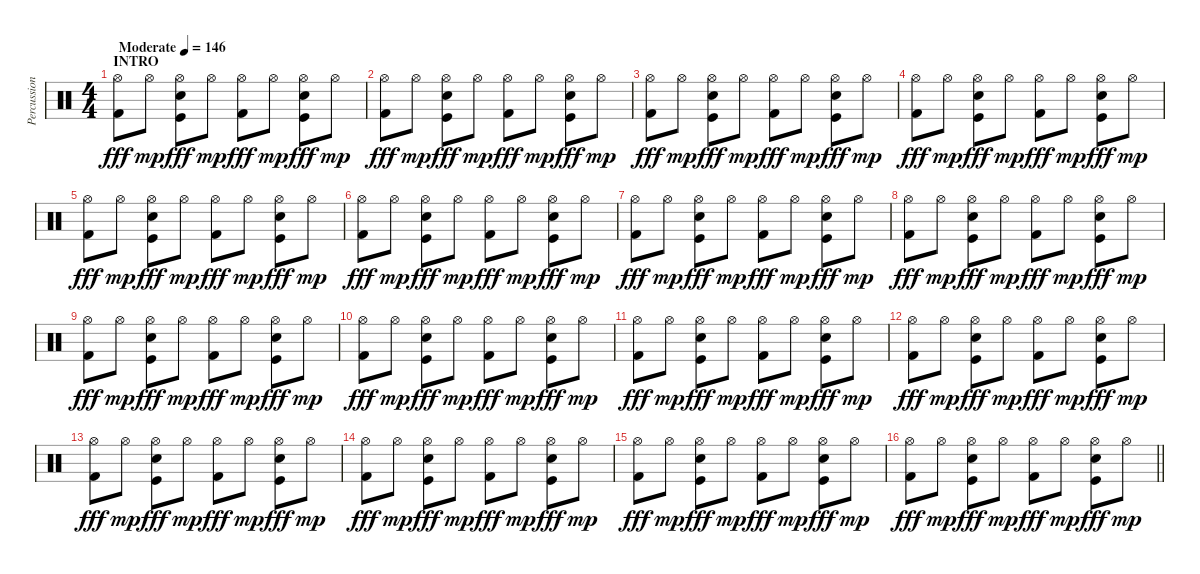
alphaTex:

\track ("Percussion" "Percussion") {instrument percussion}
\staff {score}
\articulation defaults
\ts (4 4)
\section ("" "INTRO")
\tempo (146 "Moderate")
\clef neutral
\ks c
("Hi-Hat (open)" "Kick (hit) 2").8{dy fff} "Hi-Hat (open)".8{dy mp} ("Hi-Hat (open)" "Kick (hit)" "Snare (hit) 2").8{dy fff} "Hi-Hat (open)".8{dy mp} ("Hi-Hat (open)" "Kick (hit) 2").8{dy fff} "Hi-Hat (open)".8{dy mp} ("Hi-Hat (open)" "Kick (hit)" "Snare (hit) 2").8{dy fff} "Hi-Hat (open)".8{dy mp} |
("Hi-Hat (open)" "Kick (hit) 2").8{dy fff} "Hi-Hat (open)".8{dy mp} ("Hi-Hat (open)" "Kick (hit)" "Snare (hit) 2").8{dy fff} "Hi-Hat (open)".8{dy mp} ("Hi-Hat (open)" "Kick (hit) 2").8{dy fff} "Hi-Hat (open)".8{dy mp} ("Hi-Hat (open)" "Kick (hit)" "Snare (hit) 2").8{dy fff} "Hi-Hat (open)".8{dy mp} |
("Hi-Hat (open)" "Kick (hit) 2").8{dy fff} "Hi-Hat (open)".8{dy mp} ("Hi-Hat (open)" "Kick (hit)" "Snare (hit) 2").8{dy fff} "Hi-Hat (open)".8{dy mp} ("Hi-Hat (open)" "Kick (hit) 2").8{dy fff} "Hi-Hat (open)".8{dy mp} ("Hi-Hat (open)" "Kick (hit)" "Snare (hit) 2").8{dy fff} "Hi-Hat (open)".8{dy mp} |
("Hi-Hat (open)" "Kick (hit) 2").8{dy fff} "Hi-Hat (open)".8{dy mp} ("Hi-Hat (open)" "Kick (hit)" "Snare (hit) 2").8{dy fff} "Hi-Hat (open)".8{dy mp} ("Hi-Hat (open)" "Kick (hit) 2").8{dy fff} "Hi-Hat (open)".8{dy mp} ("Hi-Hat (open)" "Kick (hit)" "Snare (hit) 2").8{dy fff} "Hi-Hat (open)".8{dy mp} |
("Hi-Hat (open)" "Kick (hit) 2").8{dy fff} "Hi-Hat (open)".8{dy mp} ("Hi-Hat (open)" "Kick (hit)" "Snare (hit) 2").8{dy fff} "Hi-Hat (open)".8{dy mp} ("Hi-Hat (open)" "Kick (hit) 2").8{dy fff} "Hi-Hat (open)".8{dy mp} ("Hi-Hat (open)" "Kick (hit)" "Snare (hit) 2").8{dy fff} "Hi-Hat (open)".8{dy mp} |
("Hi-Hat (open)" "Kick (hit) 2").8{dy fff} "Hi-Hat (open)".8{dy mp} ("Hi-Hat (open)" "Kick (hit)" "Snare (hit) 2").8{dy fff} "Hi-Hat (open)".8{dy mp} ("Hi-Hat (open)" "Kick (hit) 2").8{dy fff} "Hi-Hat (open)".8{dy mp} ("Hi-Hat (open)" "Kick (hit)" "Snare (hit) 2").8{dy fff} "Hi-Hat (open)".8{dy mp} |
("Hi-Hat (open)" "Kick (hit) 2").8{dy fff} "Hi-Hat (open)".8{dy mp} ("Hi-Hat (open)" "Kick (hit)" "Snare (hit) 2").8{dy fff} "Hi-Hat (open)".8{dy mp} ("Hi-Hat (open)" "Kick (hit) 2").8{dy fff} "Hi-Hat (open)".8{dy mp} ("Hi-Hat (open)" "Kick (hit)" "Snare (hit) 2").8{dy fff} "Hi-Hat (open)".8{dy mp} |
("Hi-Hat (open)" "Kick (hit) 2").8{dy fff} "Hi-Hat (open)".8{dy mp} ("Hi-Hat (open)" "Kick (hit)" "Snare (hit) 2").8{dy fff} "Hi-Hat (open)".8{dy mp} ("Hi-Hat (open)" "Kick (hit) 2").8{dy fff} "Hi-Hat (open)".8{dy mp} ("Hi-Hat (open)" "Kick (hit)" "Snare (hit) 2").8{dy fff} "Hi-Hat (open)".8{dy mp} |
("Hi-Hat (open)" "Kick (hit) 2").8{dy fff} "Hi-Hat (open)".8{dy mp} ("Hi-Hat (open)" "Kick (hit)" "Snare (hit) 2").8{dy fff} "Hi-Hat (open)".8{dy mp} ("Hi-Hat (open)" "Kick (hit) 2").8{dy fff} "Hi-Hat (open)".8{dy mp} ("Hi-Hat (open)" "Kick (hit)" "Snare (hit) 2").8{dy fff} "Hi-Hat (open)".8{dy mp} |
("Hi-Hat (open)" "Kick (hit) 2").8{dy fff} "Hi-Hat (open)".8{dy mp} ("Hi-Hat (open)" "Kick (hit)" "Snare (hit) 2").8{dy fff} "Hi-Hat (open)".8{dy mp} ("Hi-Hat (open)" "Kick (hit) 2").8{dy fff} "Hi-Hat (open)".8{dy mp} ("Hi-Hat (open)" "Kick (hit)" "Snare (hit) 2").8{dy fff} "Hi-Hat (open)".8{dy mp} |
("Hi-Hat (open)" "Kick (hit) 2").8{dy fff} "Hi-Hat (open)".8{dy mp} ("Hi-Hat (open)" "Kick (hit)" "Snare (hit) 2").8{dy fff} "Hi-Hat (open)".8{dy mp} ("Hi-Hat (open)" "Kick (hit) 2").8{dy fff} "Hi-Hat (open)".8{dy mp} ("Hi-Hat (open)" "Kick (hit)" "Snare (hit) 2").8{dy fff} "Hi-Hat (open)".8{dy mp} |
("Hi-Hat (open)" "Kick (hit) 2").8{dy fff} "Hi-Hat (open)".8{dy mp} ("Hi-Hat (open)" "Kick (hit)" "Snare (hit) 2").8{dy fff} "Hi-Hat (open)".8{dy mp} ("Hi-Hat (open)" "Kick (hit) 2").8{dy fff} "Hi-Hat (open)".8{dy mp} ("Hi-Hat (open)" "Kick (hit)" "Snare (hit) 2").8{dy fff} "Hi-Hat (open)".8{dy mp} |
("Hi-Hat (open)" "Kick (hit) 2").8{dy fff} "Hi-Hat (open)".8{dy mp} ("Hi-Hat (open)" "Kick (hit)" "Snare (hit) 2").8{dy fff} "Hi-Hat (open)".8{dy mp} ("Hi-Hat (open)" "Kick (hit) 2").8{dy fff} "Hi-Hat (open)".8{dy mp} ("Hi-Hat (open)" "Kick (hit)" "Snare (hit) 2").8{dy fff} "Hi-Hat (open)".8{dy mp} |
("Hi-Hat (open)" "Kick (hit) 2").8{dy fff} "Hi-Hat (open)".8{dy mp} ("Hi-Hat (open)" "Kick (hit)" "Snare (hit) 2").8{dy fff} "Hi-Hat (open)".8{dy mp} ("Hi-Hat (open)" "Kick (hit) 2").8{dy fff} "Hi-Hat (open)".8{dy mp} ("Hi-Hat (open)" "Kick (hit)" "Snare (hit) 2").8{dy fff} "Hi-Hat (open)".8{dy mp} |
("Hi-Hat (open)" "Kick (hit) 2").8{dy fff} "Hi-Hat (open)".8{dy mp} ("Hi-Hat (open)" "Kick (hit)" "Snare (hit) 2").8{dy fff} "Hi-Hat (open)".8{dy mp} ("Hi-Hat (open)" "Kick (hit) 2").8{dy fff} "Hi-Hat (open)".8{dy mp} ("Hi-Hat (open)" "Kick (hit)" "Snare (hit) 2").8{dy fff} "Hi-Hat (open)".8{dy mp} |
\barLineRight lightlight
("Hi-Hat (open)" "Kick (hit) 2").8{dy fff} "Hi-Hat (open)".8{dy mp} ("Hi-Hat (open)" "Kick (hit)" "Snare (hit) 2").8{dy fff} "Hi-Hat (open)".8{dy mp} ("Hi-Hat (open)" "Kick (hit) 2").8{dy fff} "Hi-Hat (open)".8{dy mp} ("Hi-Hat (open)" "Kick (hit)" "Snare (hit) 2").8{dy fff} "Hi-Hat (open)".8{dy mp}
